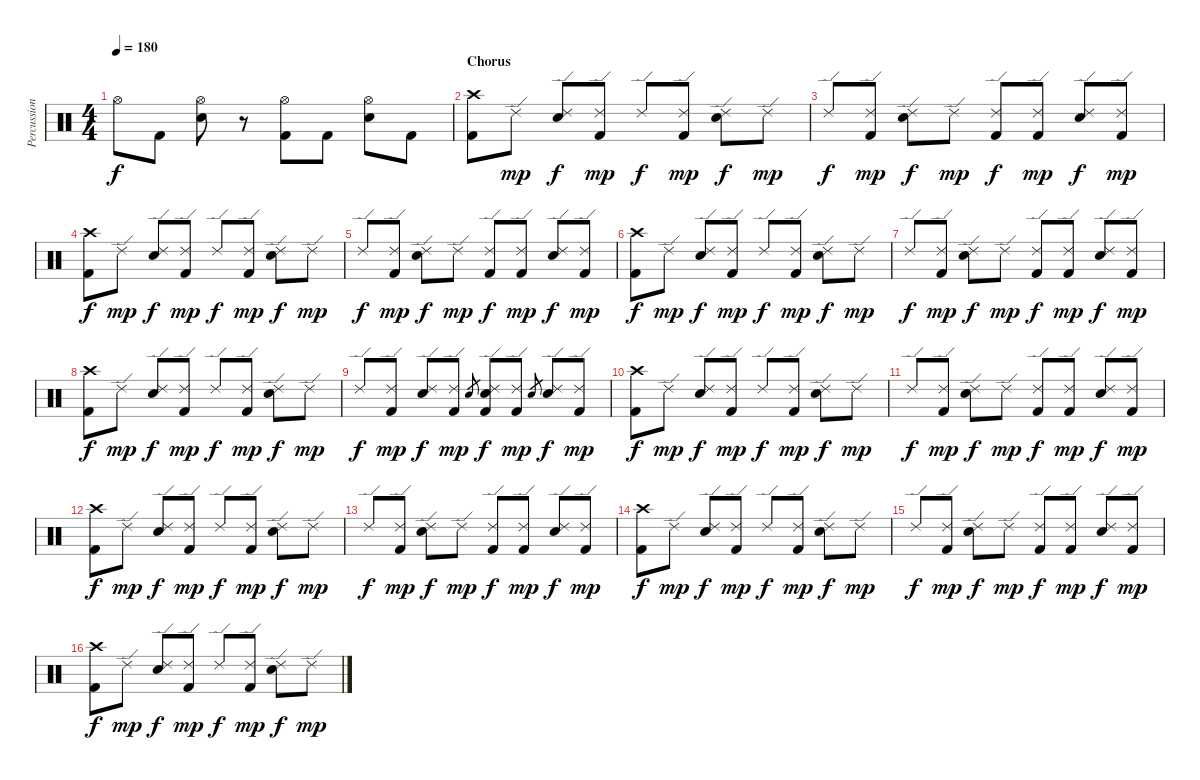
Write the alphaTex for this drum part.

\track ("Percussion" "Percussion") {instrument percussion}
\staff {score}
\articulation defaults
\ts (4 4)
\tempo 180
\clef neutral
\ks c "Hi-Hat (open)".8{dy f} "Kick (hit) 2".8
("Hi-Hat (open)" "Electric Snare (hit)").8 r.8 ("Hi-Hat (open)" "Kick (hit) 2").8 "Kick (hit) 2".8 ("Hi-Hat (open)" "Electric Snare (hit)").8 "Kick (hit) 2".8 |
\section ("" "Chorus")
("Crash high (hit)" "Kick (hit) 2").8 "Ride (edge) 2".8{dy mp} ("Ride (edge) 2" "Electric Snare (hit)").8{dy f} ("Ride (edge) 2" "Kick (hit) 2").8{dy mp} "Ride (edge) 2".8{dy f} ("Ride (edge) 2" "Kick (hit) 2").8{dy mp} ("Ride (edge) 2" "Electric Snare (hit)").8{dy f} "Ride (edge) 2".8{dy mp} |
"Ride (edge) 2".8{dy f} ("Ride (edge) 2" "Kick (hit) 2").8{dy mp} ("Ride (edge) 2" "Electric Snare (hit)").8{dy f} "Ride (edge) 2".8{dy mp} ("Ride (edge) 2" "Kick (hit) 2").8{dy f} ("Ride (edge) 2" "Kick (hit) 2").8{dy mp} ("Ride (edge) 2" "Electric Snare (hit)").8{dy f} ("Ride (edge) 2" "Kick (hit) 2").8{dy mp} |
("Crash high (hit)" "Kick (hit) 2").8{dy f} "Ride (edge) 2".8{dy mp} ("Ride (edge) 2" "Electric Snare (hit)").8{dy f} ("Ride (edge) 2" "Kick (hit) 2").8{dy mp} "Ride (edge) 2".8{dy f} ("Ride (edge) 2" "Kick (hit) 2").8{dy mp} ("Ride (edge) 2" "Electric Snare (hit)").8{dy f} "Ride (edge) 2".8{dy mp} |
"Ride (edge) 2".8{dy f} ("Ride (edge) 2" "Kick (hit) 2").8{dy mp} ("Ride (edge) 2" "Electric Snare (hit)").8{dy f} "Ride (edge) 2".8{dy mp} ("Ride (edge) 2" "Kick (hit) 2").8{dy f} ("Ride (edge) 2" "Kick (hit) 2").8{dy mp} ("Ride (edge) 2" "Electric Snare (hit)").8{dy f} ("Ride (edge) 2" "Kick (hit) 2").8{dy mp} |
("Crash high (hit)" "Kick (hit) 2").8{dy f} "Ride (edge) 2".8{dy mp} ("Ride (edge) 2" "Electric Snare (hit)").8{dy f} ("Ride (edge) 2" "Kick (hit) 2").8{dy mp} "Ride (edge) 2".8{dy f} ("Ride (edge) 2" "Kick (hit) 2").8{dy mp} ("Ride (edge) 2" "Electric Snare (hit)").8{dy f} "Ride (edge) 2".8{dy mp} |
"Ride (edge) 2".8{dy f} ("Ride (edge) 2" "Kick (hit) 2").8{dy mp} ("Ride (edge) 2" "Electric Snare (hit)").8{dy f} "Ride (edge) 2".8{dy mp} ("Ride (edge) 2" "Kick (hit) 2").8{dy f} ("Ride (edge) 2" "Kick (hit) 2").8{dy mp} ("Ride (edge) 2" "Electric Snare (hit)").8{dy f} ("Ride (edge) 2" "Kick (hit) 2").8{dy mp} |
("Crash high (hit)" "Kick (hit) 2").8{dy f} "Ride (edge) 2".8{dy mp} ("Ride (edge) 2" "Electric Snare (hit)").8{dy f} ("Ride (edge) 2" "Kick (hit) 2").8{dy mp} "Ride (edge) 2".8{dy f} ("Ride (edge) 2" "Kick (hit) 2").8{dy mp} ("Ride (edge) 2" "Electric Snare (hit)").8{dy f} "Ride (edge) 2".8{dy mp} |
"Ride (edge) 2".8{dy f} ("Ride (edge) 2" "Kick (hit) 2").8{dy mp} ("Ride (edge) 2" "Electric Snare (hit)").8{dy f} ("Ride (edge) 2" "Kick (hit) 2").8{dy mp} "Electric Snare (hit)".8{gr} ("Ride (edge) 2" "Electric Snare (hit)" "Kick (hit) 2").8{dy f} ("Ride (edge) 2" "Kick (hit) 2").8{dy mp} "Electric Snare (hit)".8{gr} ("Ride (edge) 2" "Electric Snare (hit)").8{dy f} ("Ride (edge) 2" "Kick (hit) 2").8{dy mp} |
("Crash high (hit)" "Kick (hit) 2").8{dy f} "Ride (edge) 2".8{dy mp} ("Ride (edge) 2" "Electric Snare (hit)").8{dy f} ("Ride (edge) 2" "Kick (hit) 2").8{dy mp} "Ride (edge) 2".8{dy f} ("Ride (edge) 2" "Kick (hit) 2").8{dy mp} ("Ride (edge) 2" "Electric Snare (hit)").8{dy f} "Ride (edge) 2".8{dy mp} |
"Ride (edge) 2".8{dy f} ("Ride (edge) 2" "Kick (hit) 2").8{dy mp} ("Ride (edge) 2" "Electric Snare (hit)").8{dy f} "Ride (edge) 2".8{dy mp} ("Ride (edge) 2" "Kick (hit) 2").8{dy f} ("Ride (edge) 2" "Kick (hit) 2").8{dy mp} ("Ride (edge) 2" "Electric Snare (hit)").8{dy f} ("Ride (edge) 2" "Kick (hit) 2").8{dy mp} |
("Crash high (hit)" "Kick (hit) 2").8{dy f} "Ride (edge) 2".8{dy mp} ("Ride (edge) 2" "Electric Snare (hit)").8{dy f} ("Ride (edge) 2" "Kick (hit) 2").8{dy mp} "Ride (edge) 2".8{dy f} ("Ride (edge) 2" "Kick (hit) 2").8{dy mp} ("Ride (edge) 2" "Electric Snare (hit)").8{dy f} "Ride (edge) 2".8{dy mp} |
"Ride (edge) 2".8{dy f} ("Ride (edge) 2" "Kick (hit) 2").8{dy mp} ("Ride (edge) 2" "Electric Snare (hit)").8{dy f} "Ride (edge) 2".8{dy mp} ("Ride (edge) 2" "Kick (hit) 2").8{dy f} ("Ride (edge) 2" "Kick (hit) 2").8{dy mp} ("Ride (edge) 2" "Electric Snare (hit)").8{dy f} ("Ride (edge) 2" "Kick (hit) 2").8{dy mp} |
("Crash high (hit)" "Kick (hit) 2").8{dy f} "Ride (edge) 2".8{dy mp} ("Ride (edge) 2" "Electric Snare (hit)").8{dy f} ("Ride (edge) 2" "Kick (hit) 2").8{dy mp} "Ride (edge) 2".8{dy f} ("Ride (edge) 2" "Kick (hit) 2").8{dy mp} ("Ride (edge) 2" "Electric Snare (hit)").8{dy f} "Ride (edge) 2".8{dy mp} |
"Ride (edge) 2".8{dy f} ("Ride (edge) 2" "Kick (hit) 2").8{dy mp} ("Ride (edge) 2" "Electric Snare (hit)").8{dy f} "Ride (edge) 2".8{dy mp} ("Ride (edge) 2" "Kick (hit) 2").8{dy f} ("Ride (edge) 2" "Kick (hit) 2").8{dy mp} ("Ride (edge) 2" "Electric Snare (hit)").8{dy f} ("Ride (edge) 2" "Kick (hit) 2").8{dy mp} |
("Crash high (hit)" "Kick (hit) 2").8{dy f} "Ride (edge) 2".8{dy mp} ("Ride (edge) 2" "Electric Snare (hit)").8{dy f} ("Ride (edge) 2" "Kick (hit) 2").8{dy mp} "Ride (edge) 2".8{dy f} ("Ride (edge) 2" "Kick (hit) 2").8{dy mp} ("Ride (edge) 2" "Electric Snare (hit)").8{dy f} "Ride (edge) 2".8{dy mp}
